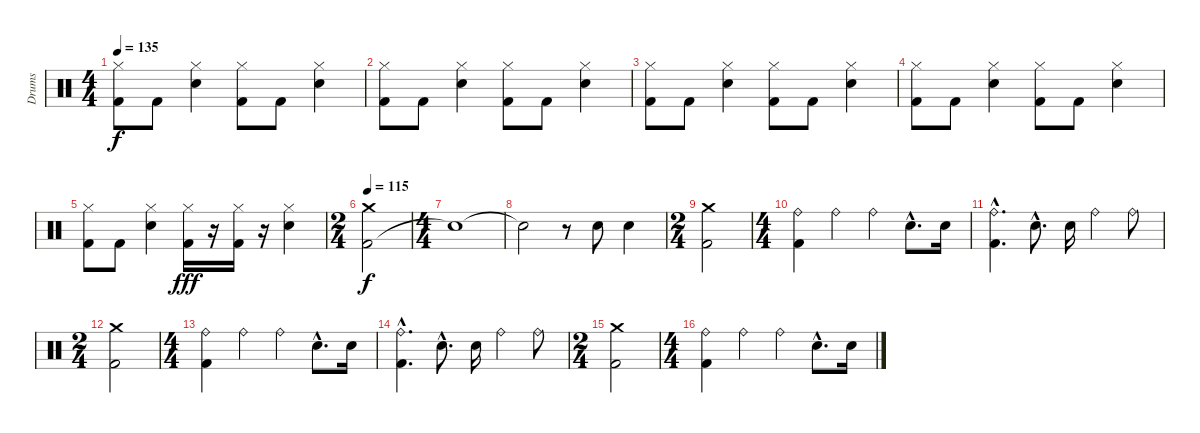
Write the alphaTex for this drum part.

\track ("Drums" "Drums") {instrument percussion}
\staff {score}
\articulation defaults
\ts (4 4)
\tempo 135
\clef neutral
\ks c
("Kick (hit) 2" "Hi-Hat (closed)").8{dy f} "Kick (hit) 2".8 ("Electric Snare (hit)" "Hi-Hat (closed)").4 ("Kick (hit) 2" "Hi-Hat (closed)").8 "Kick (hit) 2".8 ("Electric Snare (hit)" "Hi-Hat (closed)").4 |
("Kick (hit) 2" "Hi-Hat (closed)").8 "Kick (hit) 2".8 ("Electric Snare (hit)" "Hi-Hat (closed)").4 ("Kick (hit) 2" "Hi-Hat (closed)").8 "Kick (hit) 2".8 ("Electric Snare (hit)" "Hi-Hat (closed)").4 |
("Kick (hit) 2" "Hi-Hat (closed)").8 "Kick (hit) 2".8 ("Electric Snare (hit)" "Hi-Hat (closed)").4 ("Kick (hit) 2" "Hi-Hat (closed)").8 "Kick (hit) 2".8 ("Electric Snare (hit)" "Hi-Hat (closed)").4 |
("Kick (hit) 2" "Hi-Hat (closed)").8 "Kick (hit) 2".8 ("Electric Snare (hit)" "Hi-Hat (closed)").4 ("Kick (hit) 2" "Hi-Hat (closed)").8 "Kick (hit) 2".8 ("Electric Snare (hit)" "Hi-Hat (closed)").4 |
("Kick (hit) 2" "Hi-Hat (closed)").8 "Kick (hit) 2".8 ("Electric Snare (hit)" "Hi-Hat (closed)").4 ("Kick (hit) 2" "Hi-Hat (closed)").16{dy fff} r.16 ("Kick (hit) 2" "Hi-Hat (closed)").16 r.16 ("Electric Snare (hit)" "Hi-Hat (closed)").4 |
\ts (2 4)
\tempo 115
("Kick (hit) 2" "Crash medium (hit)").2{dy f} |
\ts (4 4)
"Snare (hit)"{t}.1 |
"Snare (hit)"{t}.2 r.8 "Snare (hit) 2".8 "Snare (hit) 2".4 |
\ts (2 4)
("Kick (hit) 2" "Crash medium (hit)").2 |
\ts (4 4)
("Kick (hit) 2" "Ride (bell)").4 "Ride (bell)".4 "Ride (bell)".4 "Snare (hit) 2"{hac}.8{d} "Snare (hit) 2".16 |
("Kick (hit) 2"{hac} "Ride (bell)"{hac}).4{d} "Snare (hit) 2"{hac}.8{d} "Snare (hit) 2".16 "Ride (bell)".4 "Ride (bell)".8 |
\ts (2 4)
("Kick (hit) 2" "Crash medium (hit)").2 |
\ts (4 4)
("Kick (hit) 2" "Ride (bell)").4 "Ride (bell)".4 "Ride (bell)".4 "Snare (hit) 2"{hac}.8{d} "Snare (hit) 2".16 |
("Kick (hit) 2"{hac} "Ride (bell)"{hac}).4{d} "Snare (hit) 2"{hac}.8{d} "Snare (hit) 2".16 "Ride (bell)".4 "Ride (bell)".8 |
\ts (2 4)
("Kick (hit) 2" "Crash medium (hit)").2 |
\ts (4 4)
("Kick (hit) 2" "Ride (bell)").4 "Ride (bell)".4 "Ride (bell)".4 "Snare (hit) 2"{hac}.8{d} "Snare (hit) 2".16
